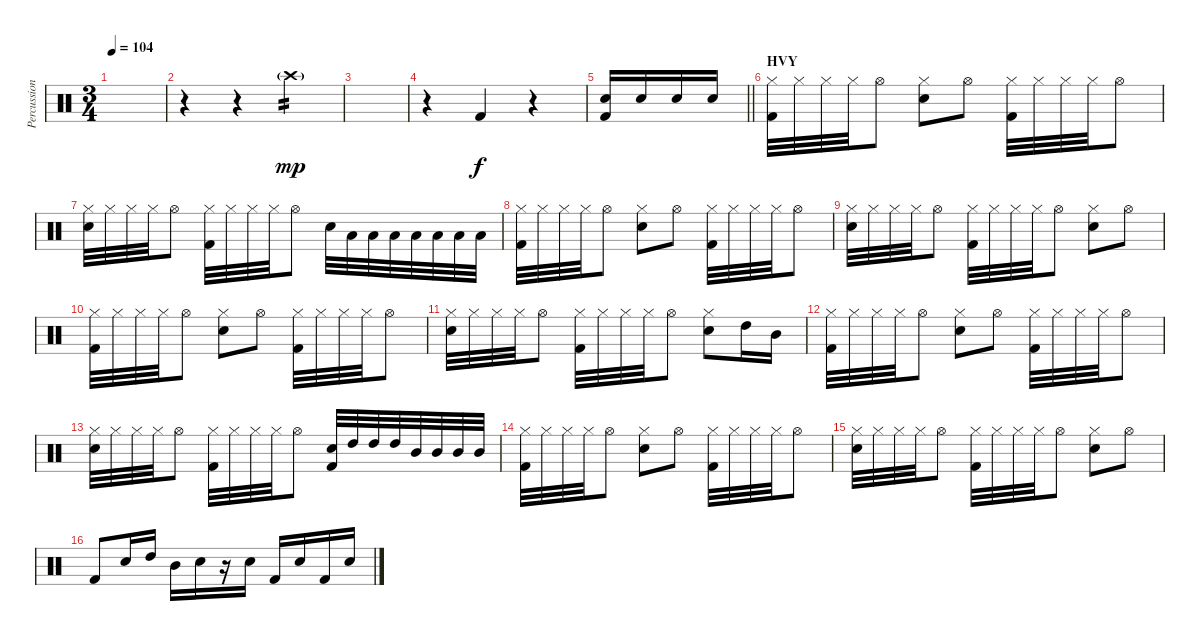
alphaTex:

\track ("Percussion" "Percussion") {instrument percussion}
\staff {score}
\articulation defaults
\ts (3 4)
\tempo 104
\clef neutral
\ks c
|
r.4 r.4 "Crash high (hit)"{g}.4{tp 2 dy mp} |
|
r.4 "Kick (hit) 2".4{dy f} r.4 |
\barLineRight lightlight
("Kick (hit) 2" "Electric Snare (hit)").16 "Electric Snare (hit)".16 "Electric Snare (hit)".16 "Electric Snare (hit)".16 |
\section ("" "HVY")
("Kick (hit) 2" "Hi-Hat (closed)").32 "Hi-Hat (closed)".32 "Hi-Hat (closed)".32 "Hi-Hat (closed)".32 "Hi-Hat (open)".8 ("Hi-Hat (closed)" "Electric Snare (hit)").8 "Hi-Hat (open)".8 ("Kick (hit) 2" "Hi-Hat (closed)").32 "Hi-Hat (closed)".32 "Hi-Hat (closed)".32 "Hi-Hat (closed)".32 "Hi-Hat (open)".8 |
("Hi-Hat (closed)" "Electric Snare (hit)").32 "Hi-Hat (closed)".32 "Hi-Hat (closed)".32 "Hi-Hat (closed)".32 "Hi-Hat (open)".8 ("Hi-Hat (closed)" "Kick (hit) 2").32 "Hi-Hat (closed)".32 "Hi-Hat (closed)".32 "Hi-Hat (closed)".32 "Hi-Hat (open)".8 "Electric Snare (hit)".32 "Low Floor Tom (hit)".32 "Low Floor Tom (hit)".32 "Low Floor Tom (hit)".32 "Low Tom (hit)".32 "Low Tom (hit)".32 "Low Tom (hit)".32 "Low Tom (hit)".32 |
("Kick (hit) 2" "Hi-Hat (closed)").32 "Hi-Hat (closed)".32 "Hi-Hat (closed)".32 "Hi-Hat (closed)".32 "Hi-Hat (open)".8 ("Hi-Hat (closed)" "Electric Snare (hit)").8 "Hi-Hat (open)".8 ("Kick (hit) 2" "Hi-Hat (closed)").32 "Hi-Hat (closed)".32 "Hi-Hat (closed)".32 "Hi-Hat (closed)".32 "Hi-Hat (open)".8 |
("Hi-Hat (closed)" "Electric Snare (hit)").32 "Hi-Hat (closed)".32 "Hi-Hat (closed)".32 "Hi-Hat (closed)".32 "Hi-Hat (open)".8 ("Hi-Hat (closed)" "Kick (hit) 2").32 "Hi-Hat (closed)".32 "Hi-Hat (closed)".32 "Hi-Hat (closed)".32 "Hi-Hat (open)".8 ("Electric Snare (hit)" "Hi-Hat (closed)").8 "Hi-Hat (open)".8 |
("Kick (hit) 2" "Hi-Hat (closed)").32 "Hi-Hat (closed)".32 "Hi-Hat (closed)".32 "Hi-Hat (closed)".32 "Hi-Hat (open)".8 ("Hi-Hat (closed)" "Electric Snare (hit)").8 "Hi-Hat (open)".8 ("Kick (hit) 2" "Hi-Hat (closed)").32 "Hi-Hat (closed)".32 "Hi-Hat (closed)".32 "Hi-Hat (closed)".32 "Hi-Hat (open)".8 |
("Hi-Hat (closed)" "Electric Snare (hit)").32 "Hi-Hat (closed)".32 "Hi-Hat (closed)".32 "Hi-Hat (closed)".32 "Hi-Hat (open)".8 ("Hi-Hat (closed)" "Kick (hit) 2").32 "Hi-Hat (closed)".32 "Hi-Hat (closed)".32 "Hi-Hat (closed)".32 "Hi-Hat (open)".8 ("Electric Snare (hit)" "Hi-Hat (closed)").8 "High Tom (hit)".16 "Mid Tom (hit)".16 |
("Kick (hit) 2" "Hi-Hat (closed)").32 "Hi-Hat (closed)".32 "Hi-Hat (closed)".32 "Hi-Hat (closed)".32 "Hi-Hat (open)".8 ("Hi-Hat (closed)" "Electric Snare (hit)").8 "Hi-Hat (open)".8 ("Kick (hit) 2" "Hi-Hat (closed)").32 "Hi-Hat (closed)".32 "Hi-Hat (closed)".32 "Hi-Hat (closed)".32 "Hi-Hat (open)".8 |
("Hi-Hat (closed)" "Electric Snare (hit)").32 "Hi-Hat (closed)".32 "Hi-Hat (closed)".32 "Hi-Hat (closed)".32 "Hi-Hat (open)".8 ("Hi-Hat (closed)" "Kick (hit) 2").32 "Hi-Hat (closed)".32 "Hi-Hat (closed)".32 "Hi-Hat (closed)".32 "Hi-Hat (open)".8 ("Electric Snare (hit)" "Kick (hit) 2").32 "High Tom (hit)".32 "High Tom (hit)".32 "High Tom (hit)".32 "Mid Tom (hit)".32 "Mid Tom (hit)".32 "Mid Tom (hit)".32 "Mid Tom (hit)".32 |
("Kick (hit) 2" "Hi-Hat (closed)").32 "Hi-Hat (closed)".32 "Hi-Hat (closed)".32 "Hi-Hat (closed)".32 "Hi-Hat (open)".8 ("Hi-Hat (closed)" "Electric Snare (hit)").8 "Hi-Hat (open)".8 ("Kick (hit) 2" "Hi-Hat (closed)").32 "Hi-Hat (closed)".32 "Hi-Hat (closed)".32 "Hi-Hat (closed)".32 "Hi-Hat (open)".8 |
("Hi-Hat (closed)" "Electric Snare (hit)").32 "Hi-Hat (closed)".32 "Hi-Hat (closed)".32 "Hi-Hat (closed)".32 "Hi-Hat (open)".8 ("Hi-Hat (closed)" "Kick (hit) 2").32 "Hi-Hat (closed)".32 "Hi-Hat (closed)".32 "Hi-Hat (closed)".32 "Hi-Hat (open)".8 ("Electric Snare (hit)" "Hi-Hat (closed)").8 "Hi-Hat (open)".8 |
"Kick (hit) 2".8 "Electric Snare (hit)".16 "High Tom (hit)".16 "Mid Tom (hit)".16 "Electric Snare (hit)".16 r.16 "Electric Snare (hit)".16 "Kick (hit) 2".16 "Electric Snare (hit)".16 "Kick (hit) 2".16 "Electric Snare (hit)".16
